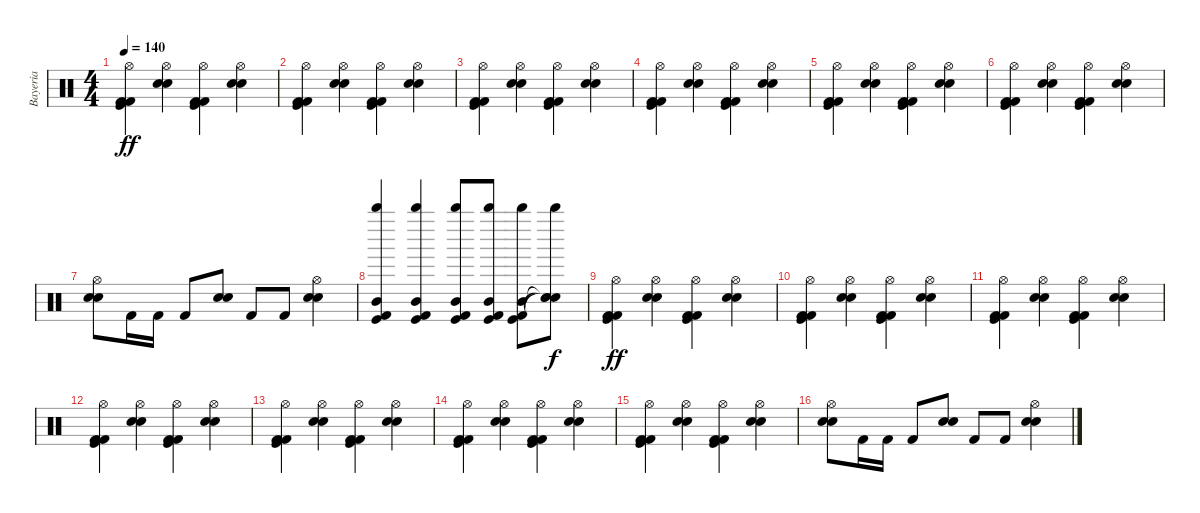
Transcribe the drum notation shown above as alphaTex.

\track ("Bayeria" "Bayeria") {instrument percussion}
\staff {score}
\articulation defaults
\ts (4 4)
\tempo 140
\clef neutral
\ks c
("Kick (hit) 2" "Kick (hit)" "Kick (hit) 2" "Hi-Hat (open)").4{dy ff} ("Electric Snare (hit)" "Snare (hit) 2" "Hi-Hat (open)").4 ("Kick (hit) 2" "Kick (hit)" "Kick (hit) 2" "Hi-Hat (open)").4 ("Electric Snare (hit)" "Snare (hit) 2" "Hi-Hat (open)").4 |
("Kick (hit) 2" "Kick (hit)" "Kick (hit) 2" "Hi-Hat (open)").4 ("Electric Snare (hit)" "Snare (hit) 2" "Hi-Hat (open)").4 ("Kick (hit) 2" "Kick (hit)" "Kick (hit) 2" "Hi-Hat (open)").4 ("Electric Snare (hit)" "Snare (hit) 2" "Hi-Hat (open)").4 |
("Kick (hit) 2" "Kick (hit)" "Kick (hit) 2" "Hi-Hat (open)").4 ("Electric Snare (hit)" "Snare (hit) 2" "Hi-Hat (open)").4 ("Kick (hit) 2" "Kick (hit)" "Kick (hit) 2" "Hi-Hat (open)").4 ("Electric Snare (hit)" "Snare (hit) 2" "Hi-Hat (open)").4 |
("Kick (hit) 2" "Kick (hit)" "Kick (hit) 2" "Hi-Hat (open)").4 ("Electric Snare (hit)" "Snare (hit) 2" "Hi-Hat (open)").4 ("Kick (hit) 2" "Kick (hit)" "Kick (hit) 2" "Hi-Hat (open)").4 ("Electric Snare (hit)" "Snare (hit) 2" "Hi-Hat (open)").4 |
("Kick (hit) 2" "Kick (hit)" "Kick (hit) 2" "Hi-Hat (open)").4 ("Electric Snare (hit)" "Snare (hit) 2" "Hi-Hat (open)").4 ("Kick (hit) 2" "Kick (hit)" "Kick (hit) 2" "Hi-Hat (open)").4 ("Electric Snare (hit)" "Snare (hit) 2" "Hi-Hat (open)").4 |
("Kick (hit) 2" "Kick (hit)" "Kick (hit) 2" "Hi-Hat (open)").4 ("Electric Snare (hit)" "Snare (hit) 2" "Hi-Hat (open)").4 ("Kick (hit) 2" "Kick (hit)" "Kick (hit) 2" "Hi-Hat (open)").4 ("Electric Snare (hit)" "Snare (hit) 2" "Hi-Hat (open)").4 |
("Electric Snare (hit)" "Snare (hit) 2" "Hi-Hat (open)").8 "Kick (hit) 2".16 "Kick (hit) 2".16 "Kick (hit) 2".8 ("Electric Snare (hit)" "Snare (hit) 2").8 "Kick (hit) 2".8 "Kick (hit) 2".8 ("Electric Snare (hit)" "Snare (hit) 2" "Hi-Hat (open)").4 |
("Whistle high (hit)" "Mid Tom (hit)" "Kick (hit)" "Kick (hit) 2").4 ("Whistle high (hit)" "Mid Tom (hit)" "Kick (hit)" "Kick (hit) 2").4 ("Whistle high (hit)" "Mid Tom (hit)" "Kick (hit)" "Kick (hit) 2").8 ("Whistle high (hit)" "Mid Tom (hit)" "Kick (hit)" "Kick (hit) 2").8 ("Whistle high (hit)" "Mid Tom (hit)" "Kick (hit)" "Kick (hit) 2").8 ("Whistle high (hit)" "Snare (hit)"{t} "Snare (hit)"{t} "Snare (hit)"{t}).8{dy f} |
("Kick (hit) 2" "Kick (hit)" "Kick (hit) 2" "Hi-Hat (open)").4{dy ff} ("Electric Snare (hit)" "Snare (hit) 2" "Hi-Hat (open)").4 ("Kick (hit) 2" "Kick (hit)" "Kick (hit) 2" "Hi-Hat (open)").4 ("Electric Snare (hit)" "Snare (hit) 2" "Hi-Hat (open)").4 |
("Kick (hit) 2" "Kick (hit)" "Kick (hit) 2" "Hi-Hat (open)").4 ("Electric Snare (hit)" "Snare (hit) 2" "Hi-Hat (open)").4 ("Kick (hit) 2" "Kick (hit)" "Kick (hit) 2" "Hi-Hat (open)").4 ("Electric Snare (hit)" "Snare (hit) 2" "Hi-Hat (open)").4 |
("Kick (hit) 2" "Kick (hit)" "Kick (hit) 2" "Hi-Hat (open)").4 ("Electric Snare (hit)" "Snare (hit) 2" "Hi-Hat (open)").4 ("Kick (hit) 2" "Kick (hit)" "Kick (hit) 2" "Hi-Hat (open)").4 ("Electric Snare (hit)" "Snare (hit) 2" "Hi-Hat (open)").4 |
("Kick (hit) 2" "Kick (hit)" "Kick (hit) 2" "Hi-Hat (open)").4 ("Electric Snare (hit)" "Snare (hit) 2" "Hi-Hat (open)").4 ("Kick (hit) 2" "Kick (hit)" "Kick (hit) 2" "Hi-Hat (open)").4 ("Electric Snare (hit)" "Snare (hit) 2" "Hi-Hat (open)").4 |
("Kick (hit) 2" "Kick (hit)" "Kick (hit) 2" "Hi-Hat (open)").4 ("Electric Snare (hit)" "Snare (hit) 2" "Hi-Hat (open)").4 ("Kick (hit) 2" "Kick (hit)" "Kick (hit) 2" "Hi-Hat (open)").4 ("Electric Snare (hit)" "Snare (hit) 2" "Hi-Hat (open)").4 |
("Kick (hit) 2" "Kick (hit)" "Kick (hit) 2" "Hi-Hat (open)").4 ("Electric Snare (hit)" "Snare (hit) 2" "Hi-Hat (open)").4 ("Kick (hit) 2" "Kick (hit)" "Kick (hit) 2" "Hi-Hat (open)").4 ("Electric Snare (hit)" "Snare (hit) 2" "Hi-Hat (open)").4 |
("Kick (hit) 2" "Kick (hit)" "Kick (hit) 2" "Hi-Hat (open)").4 ("Electric Snare (hit)" "Snare (hit) 2" "Hi-Hat (open)").4 ("Kick (hit) 2" "Kick (hit)" "Kick (hit) 2" "Hi-Hat (open)").4 ("Electric Snare (hit)" "Snare (hit) 2" "Hi-Hat (open)").4 |
("Electric Snare (hit)" "Snare (hit) 2" "Hi-Hat (open)").8 "Kick (hit) 2".16 "Kick (hit) 2".16 "Kick (hit) 2".8 ("Electric Snare (hit)" "Snare (hit) 2").8 "Kick (hit) 2".8 "Kick (hit) 2".8 ("Electric Snare (hit)" "Snare (hit) 2" "Hi-Hat (open)").4
